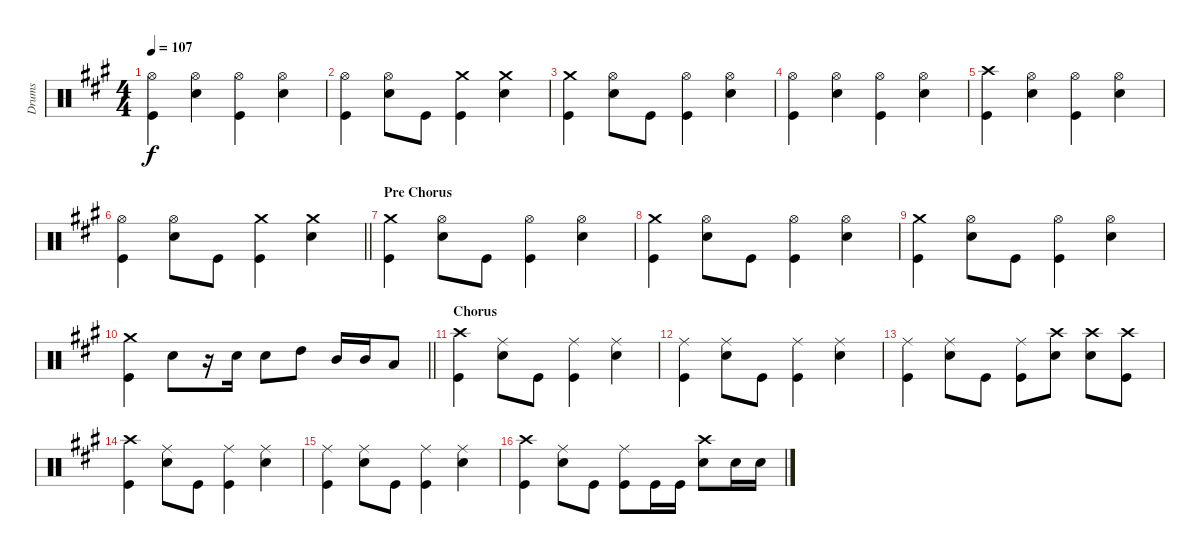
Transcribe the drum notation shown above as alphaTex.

\track ("Drums" "Drums") {instrument percussion}
\staff {score}
\articulation defaults
\ts (4 4)
\tempo 107
\clef neutral
\ks a
("Hi-Hat (open)" "Kick (hit)").4{dy f} ("Hi-Hat (open)" "Snare (hit) 2").4 ("Hi-Hat (open)" "Kick (hit)").4 ("Hi-Hat (open)" "Snare (hit) 2").4 |
("Hi-Hat (open)" "Kick (hit)").4 ("Hi-Hat (open)" "Snare (hit) 2").8 "Kick (hit)".8 ("Crash medium (hit)" "Kick (hit)").4 ("Crash medium (hit)" "Snare (hit) 2").4 |
("Crash medium (hit)" "Kick (hit)").4 ("Hi-Hat (open)" "Snare (hit) 2").8 "Kick (hit)".8 ("Hi-Hat (open)" "Kick (hit)").4 ("Hi-Hat (open)" "Snare (hit) 2").4 |
("Hi-Hat (open)" "Kick (hit)").4 ("Hi-Hat (open)" "Snare (hit) 2").4 ("Hi-Hat (open)" "Kick (hit)").4 ("Hi-Hat (open)" "Snare (hit) 2").4 |
("Crash high (hit)" "Kick (hit)").4 ("Hi-Hat (open)" "Snare (hit) 2").4 ("Hi-Hat (open)" "Kick (hit)").4 ("Hi-Hat (open)" "Snare (hit) 2").4 |
\barLineRight lightlight
("Hi-Hat (open)" "Kick (hit)").4 ("Hi-Hat (open)" "Snare (hit) 2").8 "Kick (hit)".8 ("Crash medium (hit)" "Kick (hit)").4 ("Crash medium (hit)" "Snare (hit) 2").4 |
\section ("" "Pre Chorus")
("Crash medium (hit)" "Kick (hit)").4 ("Hi-Hat (open)" "Snare (hit) 2").8 "Kick (hit)".8 ("Hi-Hat (open)" "Kick (hit)").4 ("Hi-Hat (open)" "Snare (hit) 2").4 |
("Crash medium (hit)" "Kick (hit)").4 ("Hi-Hat (open)" "Snare (hit) 2").8 "Kick (hit)".8 ("Hi-Hat (open)" "Kick (hit)").4 ("Hi-Hat (open)" "Snare (hit) 2").4 |
("Crash medium (hit)" "Kick (hit)").4 ("Hi-Hat (open)" "Snare (hit) 2").8 "Kick (hit)".8 ("Hi-Hat (open)" "Kick (hit)").4 ("Hi-Hat (open)" "Snare (hit) 2").4 |
\barLineRight lightlight
("Crash medium (hit)" "Kick (hit)").4 "Snare (hit) 2".8 r.16 "Snare (hit) 2".16 "Snare (hit) 2".8 "High Tom (hit)".8 "Mid Tom (hit)".16 "Mid Tom (hit)".16 "Low Tom (hit)".8 |
\section ("" "Chorus")
("Crash high (hit)" "Kick (hit)").4 ("Ride (middle)" "Snare (hit) 2").8 "Kick (hit)".8 ("Ride (middle)" "Kick (hit)").4 ("Ride (middle)" "Snare (hit) 2").4 |
("Ride (middle)" "Kick (hit)").4 ("Ride (middle)" "Snare (hit) 2").8 "Kick (hit)".8 ("Ride (middle)" "Kick (hit)").4 ("Ride (middle)" "Snare (hit) 2").4 |
("Ride (middle)" "Kick (hit)").4 ("Ride (middle)" "Snare (hit) 2").8 "Kick (hit)".8 ("Ride (middle)" "Kick (hit)").8 ("Crash high (hit)" "Snare (hit) 2").8 ("Crash high (hit)" "Snare (hit) 2").8 ("Crash high (hit)" "Kick (hit)").8 |
("Crash high (hit)" "Kick (hit)").4 ("Ride (middle)" "Snare (hit) 2").8 "Kick (hit)".8 ("Ride (middle)" "Kick (hit)").4 ("Ride (middle)" "Snare (hit) 2").4 |
("Ride (middle)" "Kick (hit)").4 ("Ride (middle)" "Snare (hit) 2").8 "Kick (hit)".8 ("Ride (middle)" "Kick (hit)").4 ("Ride (middle)" "Snare (hit) 2").4 |
("Crash high (hit)" "Kick (hit)").4 ("Ride (middle)" "Snare (hit) 2").8 "Kick (hit)".8 ("Ride (middle)" "Kick (hit)").8 "Kick (hit)".16 "Kick (hit)".16 ("Crash high (hit)" "Snare (hit) 2").8 "Snare (hit) 2".16 "Snare (hit) 2".16
